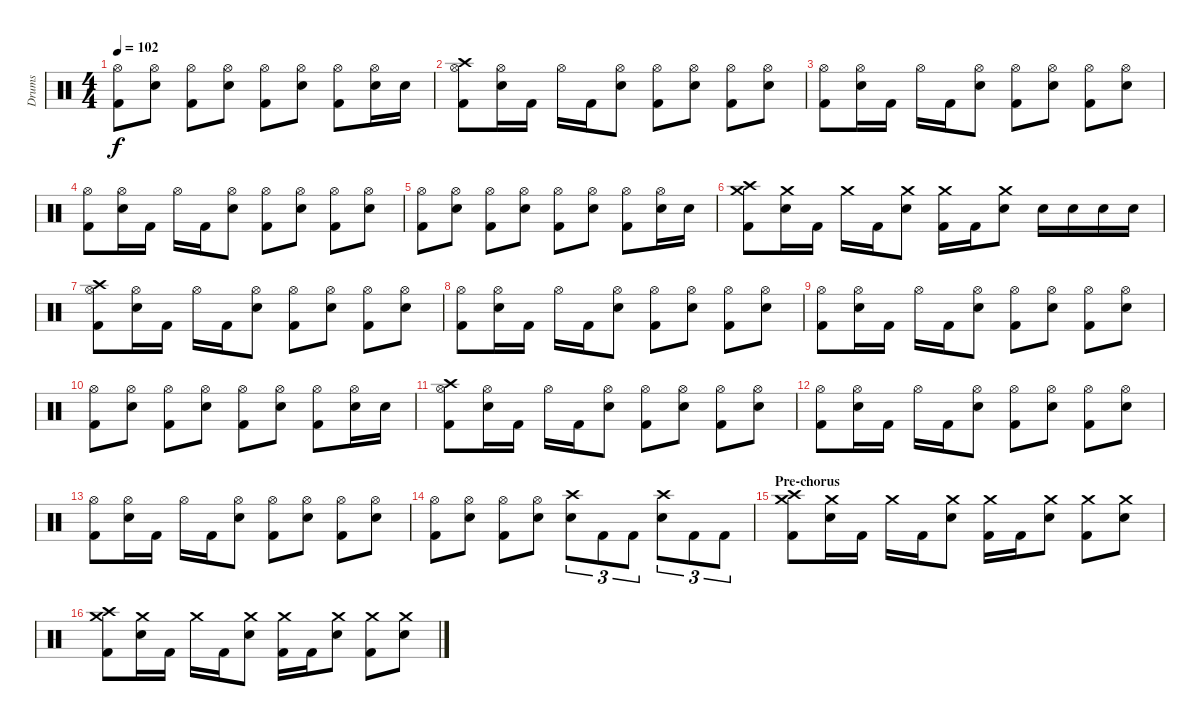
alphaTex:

\track ("Drums" "Drums") {instrument percussion}
\staff {score}
\articulation defaults
\ts (4 4)
\tempo 102
\clef neutral
\ks c
("Hi-Hat (open)" "Kick (hit) 2").8{dy f} ("Hi-Hat (open)" "Electric Snare (hit)").8 ("Hi-Hat (open)" "Kick (hit) 2").8 ("Hi-Hat (open)" "Electric Snare (hit)").8 ("Hi-Hat (open)" "Kick (hit) 2").8 ("Hi-Hat (open)" "Electric Snare (hit)").8 ("Hi-Hat (open)" "Kick (hit) 2").8 ("Hi-Hat (open)" "Electric Snare (hit)").16 "Electric Snare (hit)".16 |
("Hi-Hat (open)" "Kick (hit) 2" "Crash high (hit)").8 ("Hi-Hat (open)" "Electric Snare (hit)").16 "Kick (hit) 2".16 "Hi-Hat (open)".16 "Kick (hit) 2".16 ("Hi-Hat (open)" "Electric Snare (hit)").8 ("Hi-Hat (open)" "Kick (hit) 2").8 ("Hi-Hat (open)" "Electric Snare (hit)").8 ("Hi-Hat (open)" "Kick (hit) 2").8 ("Hi-Hat (open)" "Electric Snare (hit)").8 |
("Hi-Hat (open)" "Kick (hit) 2").8 ("Hi-Hat (open)" "Electric Snare (hit)").16 "Kick (hit) 2".16 "Hi-Hat (open)".16 "Kick (hit) 2".16 ("Hi-Hat (open)" "Electric Snare (hit)").8 ("Hi-Hat (open)" "Kick (hit) 2").8 ("Hi-Hat (open)" "Electric Snare (hit)").8 ("Hi-Hat (open)" "Kick (hit) 2").8 ("Hi-Hat (open)" "Electric Snare (hit)").8 |
("Hi-Hat (open)" "Kick (hit) 2").8 ("Hi-Hat (open)" "Electric Snare (hit)").16 "Kick (hit) 2".16 "Hi-Hat (open)".16 "Kick (hit) 2".16 ("Hi-Hat (open)" "Electric Snare (hit)").8 ("Hi-Hat (open)" "Kick (hit) 2").8 ("Hi-Hat (open)" "Electric Snare (hit)").8 ("Hi-Hat (open)" "Kick (hit) 2").8 ("Hi-Hat (open)" "Electric Snare (hit)").8 |
("Hi-Hat (open)" "Kick (hit) 2").8 ("Hi-Hat (open)" "Electric Snare (hit)").8 ("Hi-Hat (open)" "Kick (hit) 2").8 ("Hi-Hat (open)" "Electric Snare (hit)").8 ("Hi-Hat (open)" "Kick (hit) 2").8 ("Hi-Hat (open)" "Electric Snare (hit)").8 ("Hi-Hat (open)" "Kick (hit) 2").8 ("Hi-Hat (open)" "Electric Snare (hit)").16 "Electric Snare (hit)".16 |
("Crash medium (hit)" "Kick (hit) 2" "Crash high (hit)").8 ("Crash medium (hit)" "Electric Snare (hit)").16 "Kick (hit) 2".16 "Crash medium (hit)".16 "Kick (hit) 2".16 ("Crash medium (hit)" "Electric Snare (hit)").8 ("Crash medium (hit)" "Kick (hit) 2").16 "Kick (hit) 2".16 ("Crash medium (hit)" "Electric Snare (hit)").8 "Electric Snare (hit)".16 "Electric Snare (hit)".16 "Electric Snare (hit)".16 "Electric Snare (hit)".16 |
("Hi-Hat (open)" "Kick (hit) 2" "Crash high (hit)").8 ("Hi-Hat (open)" "Electric Snare (hit)").16 "Kick (hit) 2".16 "Hi-Hat (open)".16 "Kick (hit) 2".16 ("Hi-Hat (open)" "Electric Snare (hit)").8 ("Hi-Hat (open)" "Kick (hit) 2").8 ("Hi-Hat (open)" "Electric Snare (hit)").8 ("Hi-Hat (open)" "Kick (hit) 2").8 ("Hi-Hat (open)" "Electric Snare (hit)").8 |
("Hi-Hat (open)" "Kick (hit) 2").8 ("Hi-Hat (open)" "Electric Snare (hit)").16 "Kick (hit) 2".16 "Hi-Hat (open)".16 "Kick (hit) 2".16 ("Hi-Hat (open)" "Electric Snare (hit)").8 ("Hi-Hat (open)" "Kick (hit) 2").8 ("Hi-Hat (open)" "Electric Snare (hit)").8 ("Hi-Hat (open)" "Kick (hit) 2").8 ("Hi-Hat (open)" "Electric Snare (hit)").8 |
("Hi-Hat (open)" "Kick (hit) 2").8 ("Hi-Hat (open)" "Electric Snare (hit)").16 "Kick (hit) 2".16 "Hi-Hat (open)".16 "Kick (hit) 2".16 ("Hi-Hat (open)" "Electric Snare (hit)").8 ("Hi-Hat (open)" "Kick (hit) 2").8 ("Hi-Hat (open)" "Electric Snare (hit)").8 ("Hi-Hat (open)" "Kick (hit) 2").8 ("Hi-Hat (open)" "Electric Snare (hit)").8 |
("Hi-Hat (open)" "Kick (hit) 2").8 ("Hi-Hat (open)" "Electric Snare (hit)").8 ("Hi-Hat (open)" "Kick (hit) 2").8 ("Hi-Hat (open)" "Electric Snare (hit)").8 ("Hi-Hat (open)" "Kick (hit) 2").8 ("Hi-Hat (open)" "Electric Snare (hit)").8 ("Hi-Hat (open)" "Kick (hit) 2").8 ("Hi-Hat (open)" "Electric Snare (hit)").16 "Electric Snare (hit)".16 |
("Hi-Hat (open)" "Kick (hit) 2" "Crash high (hit)").8 ("Hi-Hat (open)" "Electric Snare (hit)").16 "Kick (hit) 2".16 "Hi-Hat (open)".16 "Kick (hit) 2".16 ("Hi-Hat (open)" "Electric Snare (hit)").8 ("Hi-Hat (open)" "Kick (hit) 2").8 ("Hi-Hat (open)" "Electric Snare (hit)").8 ("Hi-Hat (open)" "Kick (hit) 2").8 ("Hi-Hat (open)" "Electric Snare (hit)").8 |
("Hi-Hat (open)" "Kick (hit) 2").8 ("Hi-Hat (open)" "Electric Snare (hit)").16 "Kick (hit) 2".16 "Hi-Hat (open)".16 "Kick (hit) 2".16 ("Hi-Hat (open)" "Electric Snare (hit)").8 ("Hi-Hat (open)" "Kick (hit) 2").8 ("Hi-Hat (open)" "Electric Snare (hit)").8 ("Hi-Hat (open)" "Kick (hit) 2").8 ("Hi-Hat (open)" "Electric Snare (hit)").8 |
("Hi-Hat (open)" "Kick (hit) 2").8 ("Hi-Hat (open)" "Electric Snare (hit)").16 "Kick (hit) 2".16 "Hi-Hat (open)".16 "Kick (hit) 2".16 ("Hi-Hat (open)" "Electric Snare (hit)").8 ("Hi-Hat (open)" "Kick (hit) 2").8 ("Hi-Hat (open)" "Electric Snare (hit)").8 ("Hi-Hat (open)" "Kick (hit) 2").8 ("Hi-Hat (open)" "Electric Snare (hit)").8 |
("Hi-Hat (open)" "Kick (hit) 2").8 ("Hi-Hat (open)" "Electric Snare (hit)").8 ("Hi-Hat (open)" "Kick (hit) 2").8 ("Hi-Hat (open)" "Electric Snare (hit)").8 ("Crash high (hit)" "Electric Snare (hit)").8{tu (3 2)} "Kick (hit) 2".8{tu (3 2)} "Kick (hit) 2".8{tu (3 2)} ("Crash high (hit)" "Electric Snare (hit)").8{tu (3 2)} "Kick (hit) 2".8{tu (3 2)} "Kick (hit) 2".8{tu (3 2)} |
\section ("" "Pre-chorus")
("Crash medium (hit)" "Kick (hit) 2" "Crash high (hit)").8 ("Crash medium (hit)" "Electric Snare (hit)").16 "Kick (hit) 2".16 "Crash medium (hit)".16 "Kick (hit) 2".16 ("Crash medium (hit)" "Electric Snare (hit)").8 ("Crash medium (hit)" "Kick (hit) 2").16 "Kick (hit) 2".16 ("Crash medium (hit)" "Electric Snare (hit)").8 ("Crash medium (hit)" "Kick (hit) 2").8 ("Crash medium (hit)" "Electric Snare (hit)").8 |
("Crash medium (hit)" "Kick (hit) 2" "Crash high (hit)").8 ("Crash medium (hit)" "Electric Snare (hit)").16 "Kick (hit) 2".16 "Crash medium (hit)".16 "Kick (hit) 2".16 ("Crash medium (hit)" "Electric Snare (hit)").8 ("Crash medium (hit)" "Kick (hit) 2").16 "Kick (hit) 2".16 ("Crash medium (hit)" "Electric Snare (hit)").8 ("Crash medium (hit)" "Kick (hit) 2").8 ("Crash medium (hit)" "Electric Snare (hit)").8
